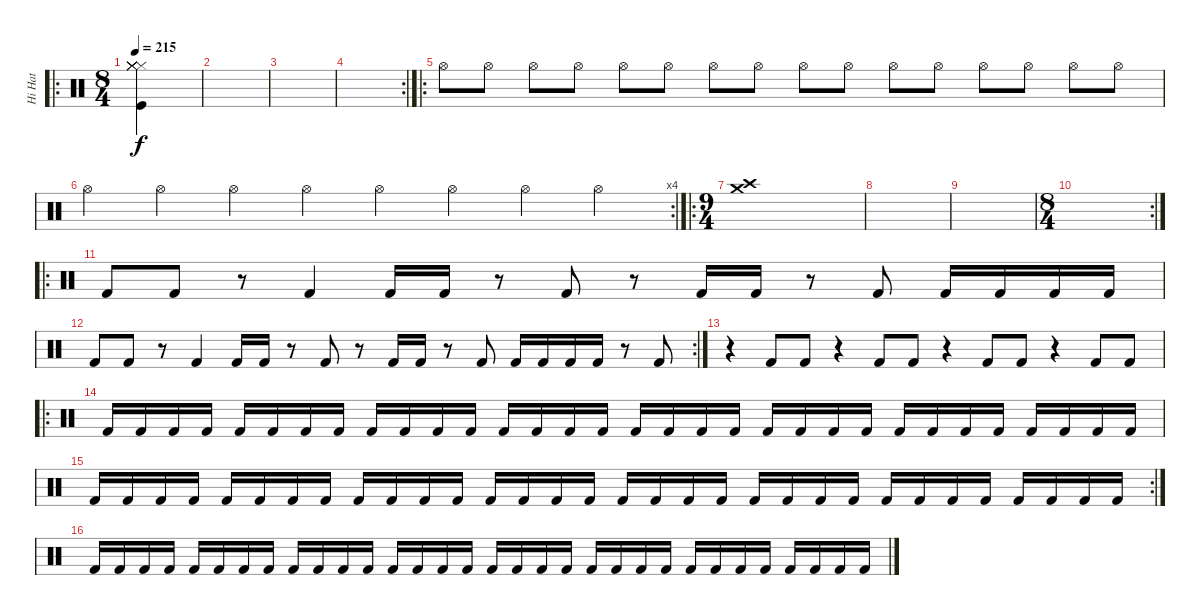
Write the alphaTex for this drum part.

\track ("Hi Hat" "Hi Hat") {instrument percussion}
\staff {score}
\articulation defaults
\ro
\ts (8 4)
\tempo 215
\clef neutral
\ks c
("Hi-Hat (closed)" "Hi-Hat (closed)" "Hi-Hat (closed)" "Hi-Hat (closed)" "Hi-Hat (closed)" "Kick (hit)").4{dy f} |
|
|
\rc 2
|
\ro "Hi-Hat (open)".8 "Hi-Hat (open)".8 "Hi-Hat (open)".8 "Hi-Hat (open)".8 "Hi-Hat (open)".8 "Hi-Hat (open)".8 "Hi-Hat (open)".8 "Hi-Hat (open)".8 "Hi-Hat (open)".8 "Hi-Hat (open)".8 "Hi-Hat (open)".8 "Hi-Hat (open)".8 "Hi-Hat (open)".8 "Hi-Hat (open)".8 "Hi-Hat (open)".8 "Hi-Hat (open)".8
|
\rc 4 "Hi-Hat (open)".4 "Hi-Hat (open)".4 "Hi-Hat (open)".4 "Hi-Hat (open)".4 "Hi-Hat (open)".4 "Hi-Hat (open)".4 "Hi-Hat (open)".4 "Hi-Hat (open)".4
|
\ro
\ts (9 4)
("Crash medium (hit)" "Crash high (hit)").1 |
|
|
\rc 2
\ts (8 4)
|
\ro "Kick (hit) 2".8 "Kick (hit) 2".8
r.8 "Kick (hit) 2".4 "Kick (hit) 2".16 "Kick (hit) 2".16 r.8 "Kick (hit) 2".8 r.8 "Kick (hit) 2".16 "Kick (hit) 2".16 r.8 "Kick (hit) 2".8 "Kick (hit) 2".16 "Kick (hit) 2".16 "Kick (hit) 2".16 "Kick (hit) 2".16 |
\rc 2 "Kick (hit) 2".8 "Kick (hit) 2".8
r.8 "Kick (hit) 2".4 "Kick (hit) 2".16 "Kick (hit) 2".16 r.8 "Kick (hit) 2".8 r.8 "Kick (hit) 2".16 "Kick (hit) 2".16 r.8 "Kick (hit) 2".8 "Kick (hit) 2".16 "Kick (hit) 2".16 "Kick (hit) 2".16 "Kick (hit) 2".16 r.8 "Kick (hit) 2".8 |
r.4 "Kick (hit) 2".8 "Kick (hit) 2".8 r.4 "Kick (hit) 2".8 "Kick (hit) 2".8 r.4 "Kick (hit) 2".8 "Kick (hit) 2".8 r.4 "Kick (hit) 2".8 "Kick (hit) 2".8 |
\ro "Kick (hit) 2".16 "Kick (hit) 2".16 "Kick (hit) 2".16 "Kick (hit) 2".16 "Kick (hit) 2".16 "Kick (hit) 2".16 "Kick (hit) 2".16 "Kick (hit) 2".16 "Kick (hit) 2".16 "Kick (hit) 2".16 "Kick (hit) 2".16 "Kick (hit) 2".16 "Kick (hit) 2".16 "Kick (hit) 2".16 "Kick (hit) 2".16 "Kick (hit) 2".16 "Kick (hit) 2".16 "Kick (hit) 2".16 "Kick (hit) 2".16 "Kick (hit) 2".16 "Kick (hit) 2".16 "Kick (hit) 2".16 "Kick (hit) 2".16 "Kick (hit) 2".16 "Kick (hit) 2".16 "Kick (hit) 2".16 "Kick (hit) 2".16 "Kick (hit) 2".16 "Kick (hit) 2".16 "Kick (hit) 2".16 "Kick (hit) 2".16 "Kick (hit) 2".16
|
\rc 2 "Kick (hit) 2".16 "Kick (hit) 2".16 "Kick (hit) 2".16 "Kick (hit) 2".16 "Kick (hit) 2".16 "Kick (hit) 2".16 "Kick (hit) 2".16 "Kick (hit) 2".16 "Kick (hit) 2".16 "Kick (hit) 2".16 "Kick (hit) 2".16 "Kick (hit) 2".16 "Kick (hit) 2".16 "Kick (hit) 2".16 "Kick (hit) 2".16 "Kick (hit) 2".16 "Kick (hit) 2".16 "Kick (hit) 2".16 "Kick (hit) 2".16 "Kick (hit) 2".16 "Kick (hit) 2".16 "Kick (hit) 2".16 "Kick (hit) 2".16 "Kick (hit) 2".16 "Kick (hit) 2".16 "Kick (hit) 2".16 "Kick (hit) 2".16 "Kick (hit) 2".16 "Kick (hit) 2".16 "Kick (hit) 2".16 "Kick (hit) 2".16 "Kick (hit) 2".16
|
"Kick (hit) 2".16 "Kick (hit) 2".16 "Kick (hit) 2".16 "Kick (hit) 2".16 "Kick (hit) 2".16 "Kick (hit) 2".16 "Kick (hit) 2".16 "Kick (hit) 2".16 "Kick (hit) 2".16 "Kick (hit) 2".16 "Kick (hit) 2".16 "Kick (hit) 2".16 "Kick (hit) 2".16 "Kick (hit) 2".16 "Kick (hit) 2".16 "Kick (hit) 2".16 "Kick (hit) 2".16 "Kick (hit) 2".16 "Kick (hit) 2".16 "Kick (hit) 2".16 "Kick (hit) 2".16 "Kick (hit) 2".16 "Kick (hit) 2".16 "Kick (hit) 2".16 "Kick (hit) 2".16 "Kick (hit) 2".16 "Kick (hit) 2".16 "Kick (hit) 2".16 "Kick (hit) 2".16 "Kick (hit) 2".16 "Kick (hit) 2".16 "Kick (hit) 2".16
